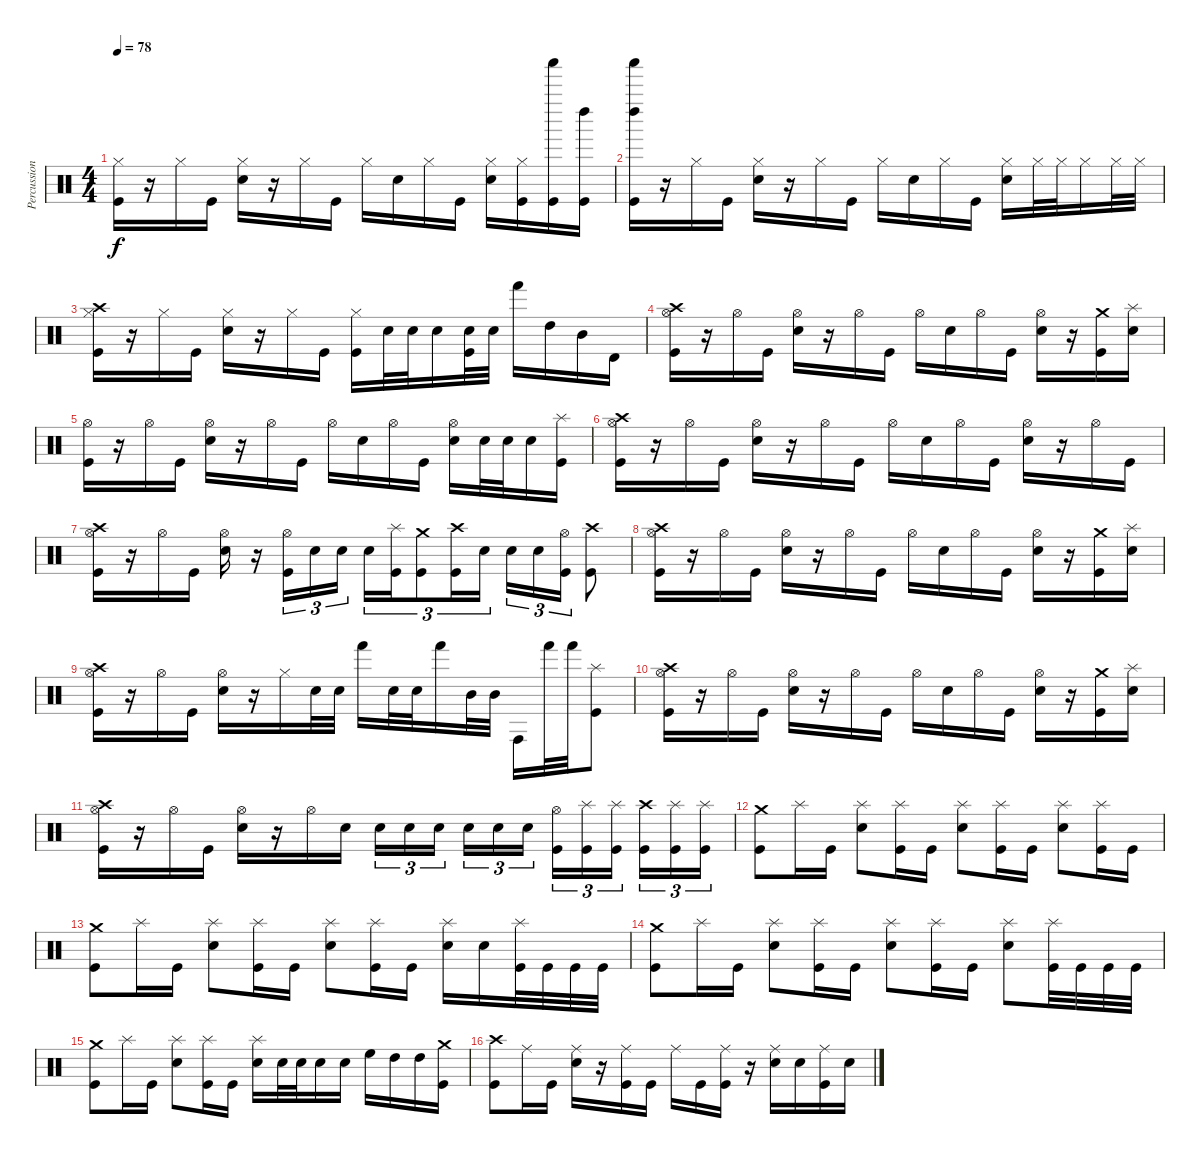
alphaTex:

\track ("Percussions" "Percussion") {instrument percussion}
\staff {score}
\articulation defaults
\ts (4 4)
\tempo 78
\clef neutral
\ks c
("Hi-Hat (closed)" "Kick (hit)").16{dy f} r.16 "Hi-Hat (closed)".16 "Kick (hit)".16 ("Hi-Hat (closed)" "Snare (hit) 2").16 r.16 "Hi-Hat (closed)".16 "Kick (hit)".16 "Hi-Hat (closed)".16 "Snare (hit) 2".16 "Hi-Hat (closed)".16 "Kick (hit)".16 ("Hi-Hat (closed)" "Snare (hit) 2").16 ("Hi-Hat (closed)" "Kick (hit)").16 ("Shaker (hit)" "Kick (hit)").16 ("Left Maraca (hit)" "Kick (hit)").16 |
("Left Maraca (hit)" "Shaker (hit)" "Kick (hit)").16 r.16 "Hi-Hat (closed)".16 "Kick (hit)".16 ("Hi-Hat (closed)" "Snare (hit) 2").16 r.16 "Hi-Hat (closed)".16 "Kick (hit)".16 "Hi-Hat (closed)".16 "Snare (hit) 2".16 "Hi-Hat (closed)".16 "Kick (hit)".16 ("Hi-Hat (closed)" "Snare (hit) 2").16 "Hi-Hat (closed)".32 "Hi-Hat (closed)".32 "Hi-Hat (closed)".16 "Hi-Hat (closed)".32 "Hi-Hat (closed)".32 |
("Crash high (hit)" "Hi-Hat (closed)" "Kick (hit)").16 r.16 "Hi-Hat (closed)".16 "Kick (hit)".16 ("Hi-Hat (closed)" "Snare (hit) 2").16 r.16 "Hi-Hat (closed)".16 "Kick (hit)".16 ("Hi-Hat (closed)" "Kick (hit)").16 "Snare (hit) 2".32 "Snare (hit) 2".32 "Electric Snare (hit)".16 ("Snare (hit) 2" "Kick (hit)").32 "Snare (hit) 2".32 "Hand (hit)".16 "High Tom (hit)".16 "Mid Tom (hit)".16 "Timbale high (hit)".16 |
("Crash high (hit)" "Hi-Hat (open)" "Kick (hit)").16 r.16 "Hi-Hat (open)".16 "Kick (hit)".16 ("Hi-Hat (open)" "Snare (hit) 2").16 r.16 "Hi-Hat (open)".16 "Kick (hit)".16 "Hi-Hat (open)".16 "Snare (hit) 2".16 "Hi-Hat (open)".16 "Kick (hit)".16 ("Hi-Hat (open)" "Snare (hit) 2").16 r.16 ("Crash medium (hit)" "Kick (hit)").16 ("Splash (hit)" "Snare (hit) 2").16 |
("Hi-Hat (open)" "Kick (hit)").16 r.16 "Hi-Hat (open)".16 "Kick (hit)".16 ("Hi-Hat (open)" "Snare (hit) 2").16 r.16 "Hi-Hat (open)".16 "Kick (hit)".16 "Hi-Hat (open)".16 "Snare (hit) 2".16 "Hi-Hat (open)".16 "Kick (hit)".16 ("Hi-Hat (open)" "Snare (hit) 2").16 "Snare (hit) 2".32 "Snare (hit) 2".32 "Snare (hit) 2".16 ("Splash (hit)" "Kick (hit)").16 |
("Crash high (hit)" "Hi-Hat (open)" "Kick (hit)").16 r.16 "Hi-Hat (open)".16 "Kick (hit)".16 ("Hi-Hat (open)" "Snare (hit) 2").16 r.16 "Hi-Hat (open)".16 "Kick (hit)".16 "Hi-Hat (open)".16 "Snare (hit) 2".16 "Hi-Hat (open)".16 "Kick (hit)".16 ("Hi-Hat (open)" "Snare (hit) 2").16 r.16 "Hi-Hat (open)".16 "Kick (hit)".16 |
("Crash high (hit)" "Hi-Hat (open)" "Kick (hit)").16 r.16 "Hi-Hat (open)".16 "Kick (hit)".16 ("Hi-Hat (open)" "Snare (hit) 2").16 r.16 ("Hi-Hat (open)" "Kick (hit)").16{tu (3 2)} "Snare (hit) 2".16{tu (3 2)} "Snare (hit) 2".16{tu (3 2)} "Snare (hit) 2".16{tu (3 2)} ("Splash (hit)" "Kick (hit)").16{tu (3 2)} ("Crash medium (hit)" "Kick (hit)").8{tu (3 2)} ("Crash high (hit)" "Kick (hit)").16{tu (3 2)} "Snare (hit) 2".16{tu (3 2)} "Snare (hit) 2".16{tu (3 2)} "Snare (hit) 2".16{tu (3 2)} ("Hi-Hat (open)" "Kick (hit)").16{tu (3 2)} ("Crash high (hit)" "Kick (hit)").8 |
("Crash high (hit)" "Hi-Hat (open)" "Kick (hit)").16 r.16 "Hi-Hat (open)".16 "Kick (hit)".16 ("Hi-Hat (open)" "Snare (hit) 2").16 r.16 "Hi-Hat (open)".16 "Kick (hit)".16 "Hi-Hat (open)".16 "Snare (hit) 2".16 "Hi-Hat (open)".16 "Kick (hit)".16 ("Hi-Hat (open)" "Snare (hit) 2").16 r.16 ("Crash medium (hit)" "Kick (hit)").16 ("Splash (hit)" "Snare (hit) 2").16 |
("Crash high (hit)" "Hi-Hat (open)" "Kick (hit)").16 r.16 "Hi-Hat (open)".16 "Kick (hit)".16 ("Hi-Hat (open)" "Snare (hit) 2").16 r.16 "Hi-Hat (closed)".16 "Snare (hit) 2".32 "Snare (hit) 2".32 "Hand (hit)".16 "Snare (hit) 2".32 "Snare (hit) 2".32 "Hand (hit)".16 "Mid Tom (hit)".32 "Mid Tom (hit)".32 "Conga high (hit)".16 "Hand (hit)".32 "Hand (hit)".32 ("Splash (hit)" "Kick (hit)").8 |
("Crash high (hit)" "Hi-Hat (open)" "Kick (hit)").16 r.16 "Hi-Hat (open)".16 "Kick (hit)".16 ("Hi-Hat (open)" "Snare (hit) 2").16 r.16 "Hi-Hat (open)".16 "Kick (hit)".16 "Hi-Hat (open)".16 "Snare (hit) 2".16 "Hi-Hat (open)".16 "Kick (hit)".16 ("Hi-Hat (open)" "Snare (hit) 2").16 r.16 ("Crash medium (hit)" "Kick (hit)").16 ("Splash (hit)" "Snare (hit) 2").16 |
("Crash high (hit)" "Hi-Hat (open)" "Kick (hit)").16 r.16 "Hi-Hat (open)".16 "Kick (hit)".16 ("Hi-Hat (open)" "Snare (hit) 2").16 r.16 "Hi-Hat (open)".16 "Snare (hit) 2".16 "Snare (hit) 2".16{tu (3 2)} "Snare (hit) 2".16{tu (3 2)} "Snare (hit) 2".16{tu (3 2)} "Snare (hit) 2".16{tu (3 2)} "Snare (hit) 2".16{tu (3 2)} "Snare (hit) 2".16{tu (3 2)} ("Hi-Hat (open)" "Kick (hit)").16{tu (3 2)} ("Splash (hit)" "Kick (hit)").16{tu (3 2)} ("Splash (hit)" "Kick (hit)").16{tu (3 2)} ("Crash high (hit)" "Kick (hit)").16{tu (3 2)} ("Splash (hit)" "Kick (hit)").16{tu (3 2)} ("Splash (hit)" "Kick (hit)").16{tu (3 2)} |
("Crash medium (hit)" "Kick (hit)").8 "Splash (hit)".16 "Kick (hit)".16 ("Splash (hit)" "Snare (hit) 2").8 ("Splash (hit)" "Kick (hit)").16 "Kick (hit)".16 ("Splash (hit)" "Snare (hit) 2").8 ("Splash (hit)" "Kick (hit)").16 "Kick (hit)".16 ("Splash (hit)" "Snare (hit) 2").8 ("Splash (hit)" "Kick (hit)").16 "Kick (hit)".16 |
("Crash medium (hit)" "Kick (hit)").8 "Splash (hit)".16 "Kick (hit)".16 ("Splash (hit)" "Snare (hit) 2").8 ("Splash (hit)" "Kick (hit)").16 "Kick (hit)".16 ("Splash (hit)" "Snare (hit) 2").8 ("Splash (hit)" "Kick (hit)").16 "Kick (hit)".16 ("Splash (hit)" "Snare (hit) 2").16 "Snare (hit) 2".16 ("Splash (hit)" "Kick (hit)").32 "Kick (hit)".32 "Kick (hit)".32 "Kick (hit)".32 |
("Crash medium (hit)" "Kick (hit)").8 "Splash (hit)".16 "Kick (hit)".16 ("Splash (hit)" "Snare (hit) 2").8 ("Splash (hit)" "Kick (hit)").16 "Kick (hit)".16 ("Splash (hit)" "Snare (hit) 2").8 ("Splash (hit)" "Kick (hit)").16 "Kick (hit)".16 ("Splash (hit)" "Snare (hit) 2").8 ("Splash (hit)" "Kick (hit)").32 "Kick (hit)".32 "Kick (hit)".32 "Kick (hit)".32 |
("Crash medium (hit)" "Kick (hit)").8 "Splash (hit)".16 "Kick (hit)".16 ("Splash (hit)" "Snare (hit) 2").8 ("Splash (hit)" "Kick (hit)").16 "Kick (hit)".16 ("Splash (hit)" "Snare (hit) 2").16 "Snare (hit) 2".32 "Snare (hit) 2".32 "Snare (hit) 2".16 "Snare (hit) 2".16 "High Floor Tom (hit)".16 "High Tom (hit)".16 "High Tom (hit)".16 ("Crash medium (hit)" "Kick (hit)").16 |
("Crash high (hit)" "Kick (hit)").8 "Ride (middle)".16 "Kick (hit)".16 ("Ride (middle)" "Snare (hit) 2").16 r.16 ("Ride (middle)" "Kick (hit)").16 "Kick (hit)".16 "Ride (middle)".16 "Kick (hit)".16 ("Ride (middle)" "Kick (hit)").16 r.16 ("Ride (middle)" "Snare (hit) 2").16 "Snare (hit) 2".16 ("Ride (middle)" "Kick (hit)").16 "Snare (hit) 2".16
